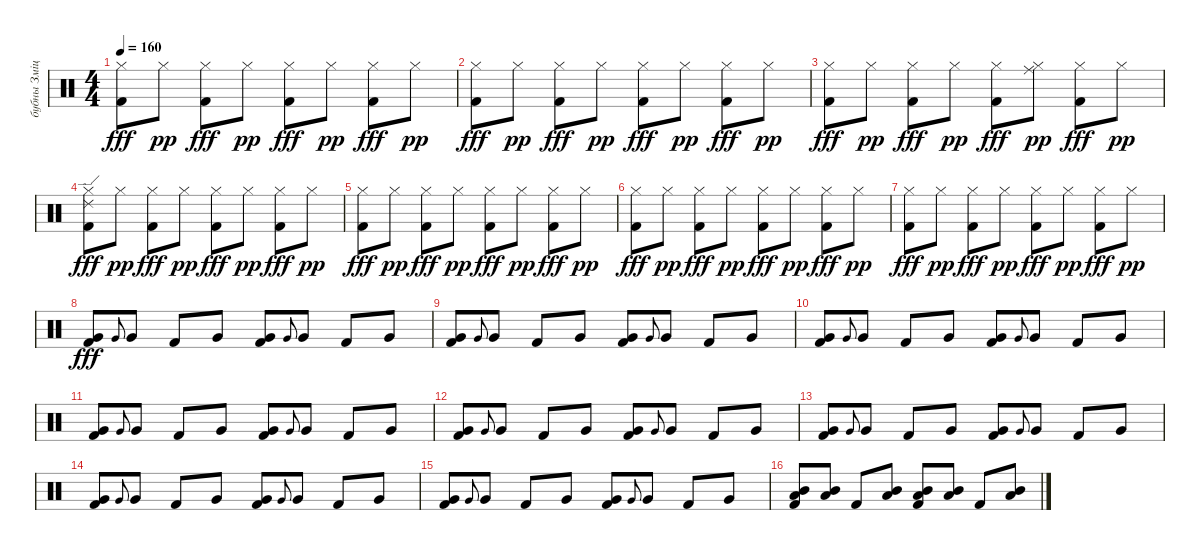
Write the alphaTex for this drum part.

\track ("бубны Змiцер" "бубны Змiц") {instrument percussion}
\staff {score}
\articulation defaults
\ts (4 4)
\tempo 160
\clef neutral
\ks c
("Hi-Hat (closed)" "Kick (hit) 2").8{dy fff} "Hi-Hat (closed)".8{dy pp} ("Hi-Hat (closed)" "Kick (hit) 2").8{dy fff} "Hi-Hat (closed)".8{dy pp} ("Hi-Hat (closed)" "Kick (hit) 2").8{dy fff} "Hi-Hat (closed)".8{dy pp} ("Hi-Hat (closed)" "Kick (hit) 2").8{dy fff} "Hi-Hat (closed)".8{dy pp} |
("Hi-Hat (closed)" "Kick (hit) 2").8{dy fff} "Hi-Hat (closed)".8{dy pp} ("Hi-Hat (closed)" "Kick (hit) 2").8{dy fff} "Hi-Hat (closed)".8{dy pp} ("Hi-Hat (closed)" "Kick (hit) 2").8{dy fff} "Hi-Hat (closed)".8{dy pp} ("Hi-Hat (closed)" "Kick (hit) 2").8{dy fff} "Hi-Hat (closed)".8{dy pp} |
("Hi-Hat (closed)" "Kick (hit) 2").8{dy fff} "Hi-Hat (closed)".8{dy pp} ("Hi-Hat (closed)" "Kick (hit) 2").8{dy fff} "Hi-Hat (closed)".8{dy pp} ("Hi-Hat (closed)" "Kick (hit) 2").8{dy fff} ("Ride (middle)" "Hi-Hat (closed)").8{dy pp} ("Hi-Hat (closed)" "Kick (hit) 2").8{dy fff} "Hi-Hat (closed)".8{dy pp} |
("Ride (edge) 2" "Hi-Hat (closed)" "Kick (hit) 2").8{dy fff} "Hi-Hat (closed)".8{dy pp} ("Hi-Hat (closed)" "Kick (hit) 2").8{dy fff} "Hi-Hat (closed)".8{dy pp} ("Hi-Hat (closed)" "Kick (hit) 2").8{dy fff} "Hi-Hat (closed)".8{dy pp} ("Hi-Hat (closed)" "Kick (hit) 2").8{dy fff} "Hi-Hat (closed)".8{dy pp} |
("Hi-Hat (closed)" "Kick (hit) 2").8{dy fff} "Hi-Hat (closed)".8{dy pp} ("Hi-Hat (closed)" "Kick (hit) 2").8{dy fff} "Hi-Hat (closed)".8{dy pp} ("Hi-Hat (closed)" "Kick (hit) 2").8{dy fff} "Hi-Hat (closed)".8{dy pp} ("Hi-Hat (closed)" "Kick (hit) 2").8{dy fff} "Hi-Hat (closed)".8{dy pp} |
("Hi-Hat (closed)" "Kick (hit) 2").8{dy fff} "Hi-Hat (closed)".8{dy pp} ("Hi-Hat (closed)" "Kick (hit) 2").8{dy fff} "Hi-Hat (closed)".8{dy pp} ("Hi-Hat (closed)" "Kick (hit) 2").8{dy fff} "Hi-Hat (closed)".8{dy pp} ("Hi-Hat (closed)" "Kick (hit) 2").8{dy fff} "Hi-Hat (closed)".8{dy pp} |
("Hi-Hat (closed)" "Kick (hit) 2").8{dy fff} "Hi-Hat (closed)".8{dy pp} ("Hi-Hat (closed)" "Kick (hit) 2").8{dy fff} "Hi-Hat (closed)".8{dy pp} ("Hi-Hat (closed)" "Kick (hit) 2").8{dy fff} "Hi-Hat (closed)".8{dy pp} ("Hi-Hat (closed)" "Kick (hit) 2").8{dy fff} "Hi-Hat (closed)".8{dy pp} |
("Very Low Tom (hit)" "Kick (hit) 2").8{dy fff} "Very Low Tom (hit)".8{gr onbeat} "Very Low Tom (hit)".8 "Kick (hit) 2".8 "Very Low Tom (hit)".8 ("Very Low Tom (hit)" "Kick (hit) 2").8 "Very Low Tom (hit)".8{gr onbeat} "Very Low Tom (hit)".8 "Kick (hit) 2".8 "Very Low Tom (hit)".8 |
("Very Low Tom (hit)" "Kick (hit) 2").8 "Very Low Tom (hit)".8{gr onbeat} "Very Low Tom (hit)".8 "Kick (hit) 2".8 "Very Low Tom (hit)".8 ("Very Low Tom (hit)" "Kick (hit) 2").8 "Very Low Tom (hit)".8{gr onbeat} "Very Low Tom (hit)".8 "Kick (hit) 2".8 "Very Low Tom (hit)".8 |
("Very Low Tom (hit)" "Kick (hit) 2").8 "Very Low Tom (hit)".8{gr onbeat} "Very Low Tom (hit)".8 "Kick (hit) 2".8 "Very Low Tom (hit)".8 ("Very Low Tom (hit)" "Kick (hit) 2").8 "Very Low Tom (hit)".8{gr onbeat} "Very Low Tom (hit)".8 "Kick (hit) 2".8 "Very Low Tom (hit)".8 |
("Very Low Tom (hit)" "Kick (hit) 2").8 "Very Low Tom (hit)".8{gr onbeat} "Very Low Tom (hit)".8 "Kick (hit) 2".8 "Very Low Tom (hit)".8 ("Very Low Tom (hit)" "Kick (hit) 2").8 "Very Low Tom (hit)".8{gr onbeat} "Very Low Tom (hit)".8 "Kick (hit) 2".8 "Very Low Tom (hit)".8 |
("Very Low Tom (hit)" "Kick (hit) 2").8 "Very Low Tom (hit)".8{gr onbeat} "Very Low Tom (hit)".8 "Kick (hit) 2".8 "Very Low Tom (hit)".8 ("Very Low Tom (hit)" "Kick (hit) 2").8 "Very Low Tom (hit)".8{gr onbeat} "Very Low Tom (hit)".8 "Kick (hit) 2".8 "Very Low Tom (hit)".8 |
("Very Low Tom (hit)" "Kick (hit) 2").8 "Very Low Tom (hit)".8{gr onbeat} "Very Low Tom (hit)".8 "Kick (hit) 2".8 "Very Low Tom (hit)".8 ("Very Low Tom (hit)" "Kick (hit) 2").8 "Very Low Tom (hit)".8{gr onbeat} "Very Low Tom (hit)".8 "Kick (hit) 2".8 "Very Low Tom (hit)".8 |
("Very Low Tom (hit)" "Kick (hit) 2").8 "Very Low Tom (hit)".8{gr onbeat} "Very Low Tom (hit)".8 "Kick (hit) 2".8 "Very Low Tom (hit)".8 ("Very Low Tom (hit)" "Kick (hit) 2").8 "Very Low Tom (hit)".8{gr onbeat} "Very Low Tom (hit)".8 "Kick (hit) 2".8 "Very Low Tom (hit)".8 |
("Very Low Tom (hit)" "Kick (hit) 2").8 "Very Low Tom (hit)".8{gr onbeat} "Very Low Tom (hit)".8 "Kick (hit) 2".8 "Very Low Tom (hit)".8 ("Very Low Tom (hit)" "Kick (hit) 2").8 "Very Low Tom (hit)".8{gr onbeat} "Very Low Tom (hit)".8 "Kick (hit) 2".8 "Very Low Tom (hit)".8 |
("Mid Tom (hit)" "Low Tom (hit)" "Kick (hit) 2").8 ("Mid Tom (hit)" "Low Tom (hit)").8 "Kick (hit) 2".8 ("Mid Tom (hit)" "Low Tom (hit)").8 ("Mid Tom (hit)" "Low Tom (hit)" "Kick (hit) 2").8 ("Mid Tom (hit)" "Low Tom (hit)").8 "Kick (hit) 2".8 ("Mid Tom (hit)" "Low Tom (hit)").8
